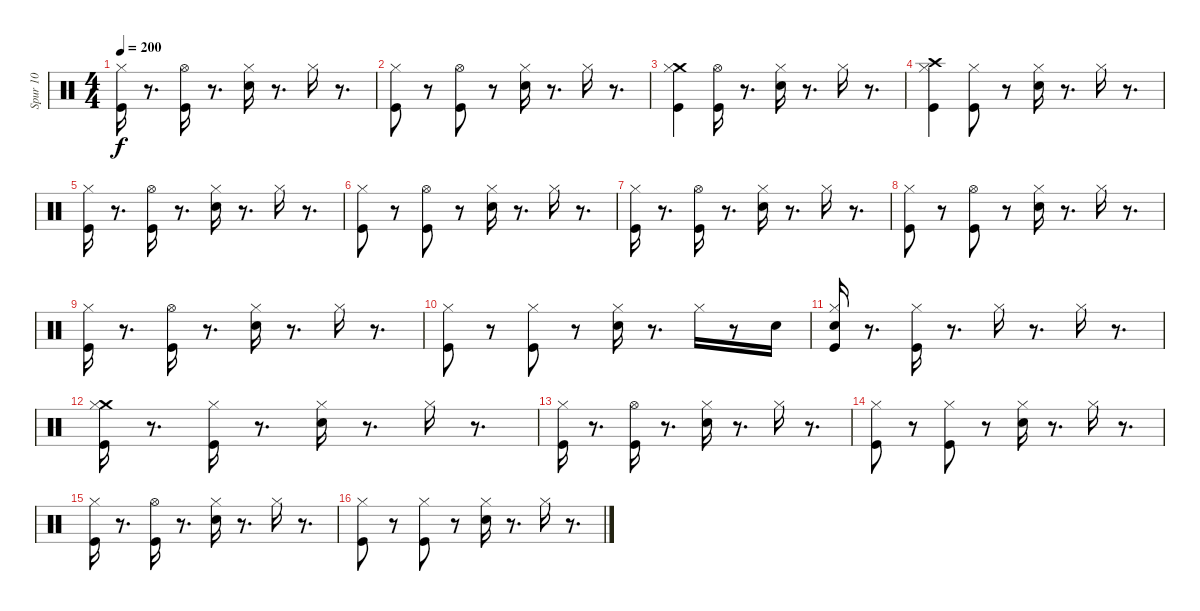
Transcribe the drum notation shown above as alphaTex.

\track ("Spur 10" "Spur 10") {instrument percussion}
\staff {score}
\articulation defaults
\ts (4 4)
\tempo 200
\clef neutral
\ks c
("Kick (hit)" "Hi-Hat (closed)").16{dy f} r.8{d} ("Kick (hit)" "Hi-Hat (open)").16 r.8{d} ("Snare (hit) 2" "Hi-Hat (closed)").16 r.8{d} "Hi-Hat (closed)".16 r.8{d} |
("Hi-Hat (closed)" "Kick (hit)").8 r.8 ("Kick (hit)" "Hi-Hat (open)").8 r.8 ("Snare (hit) 2" "Hi-Hat (closed)").16 r.8{d} "Hi-Hat (closed)".16 r.8{d} |
("Crash medium (hit)" "Kick (hit)" "Hi-Hat (closed)").4 ("Kick (hit)" "Hi-Hat (open)").16 r.8{d} ("Snare (hit) 2" "Hi-Hat (closed)").16 r.8{d} "Hi-Hat (closed)".16 r.8{d} |
("Crash high (hit)" "Hi-Hat (closed)" "Kick (hit)").4 ("Kick (hit)" "Hi-Hat (closed)").8 r.8 ("Snare (hit) 2" "Hi-Hat (closed)").16 r.8{d} "Hi-Hat (closed)".16 r.8{d} |
("Kick (hit)" "Hi-Hat (closed)").16 r.8{d} ("Kick (hit)" "Hi-Hat (open)").16 r.8{d} ("Snare (hit) 2" "Hi-Hat (closed)").16 r.8{d} "Hi-Hat (closed)".16 r.8{d} |
("Hi-Hat (closed)" "Kick (hit)").8 r.8 ("Kick (hit)" "Hi-Hat (open)").8 r.8 ("Snare (hit) 2" "Hi-Hat (closed)").16 r.8{d} "Hi-Hat (closed)".16 r.8{d} |
("Kick (hit)" "Hi-Hat (closed)").16 r.8{d} ("Kick (hit)" "Hi-Hat (open)").16 r.8{d} ("Snare (hit) 2" "Hi-Hat (closed)").16 r.8{d} "Hi-Hat (closed)".16 r.8{d} |
("Hi-Hat (closed)" "Kick (hit)").8 r.8 ("Kick (hit)" "Hi-Hat (open)").8 r.8 ("Snare (hit) 2" "Hi-Hat (closed)").16 r.8{d} "Hi-Hat (closed)".16 r.8{d} |
("Kick (hit)" "Hi-Hat (closed)").16 r.8{d} ("Kick (hit)" "Hi-Hat (open)").16 r.8{d} ("Snare (hit) 2" "Hi-Hat (closed)").16 r.8{d} "Hi-Hat (closed)".16 r.8{d} |
("Hi-Hat (closed)" "Kick (hit)").8 r.8 ("Kick (hit)" "Hi-Hat (closed)").8 r.8 ("Snare (hit) 2" "Hi-Hat (closed)").16 r.8{d} "Hi-Hat (closed)".16 r.8 "Snare (hit) 2".16 |
("Snare (hit) 2" "Kick (hit)" "Hi-Hat (closed)").16 r.8{d} ("Kick (hit)" "Hi-Hat (closed)").16 r.8{d} "Hi-Hat (closed)".16 r.8{d} "Hi-Hat (closed)".16 r.8{d} |
("Kick (hit)" "Crash medium (hit)" "Hi-Hat (closed)").16 r.8{d} ("Kick (hit)" "Hi-Hat (closed)").16 r.8{d} ("Snare (hit) 2" "Hi-Hat (closed)").16 r.8{d} "Hi-Hat (closed)".16 r.8{d} |
("Kick (hit)" "Hi-Hat (closed)").16 r.8{d} ("Kick (hit)" "Hi-Hat (open)").16 r.8{d} ("Snare (hit) 2" "Hi-Hat (closed)").16 r.8{d} "Hi-Hat (closed)".16 r.8{d} |
("Hi-Hat (closed)" "Kick (hit)").8 r.8 ("Kick (hit)" "Hi-Hat (closed)").8 r.8 ("Snare (hit) 2" "Hi-Hat (closed)").16 r.8{d} "Hi-Hat (closed)".16 r.8{d} |
("Kick (hit)" "Hi-Hat (closed)").16 r.8{d} ("Kick (hit)" "Hi-Hat (open)").16 r.8{d} ("Snare (hit) 2" "Hi-Hat (closed)").16 r.8{d} "Hi-Hat (closed)".16 r.8{d} |
("Hi-Hat (closed)" "Kick (hit)").8 r.8 ("Kick (hit)" "Hi-Hat (closed)").8 r.8 ("Snare (hit) 2" "Hi-Hat (closed)").16 r.8{d} "Hi-Hat (closed)".16 r.8{d}
